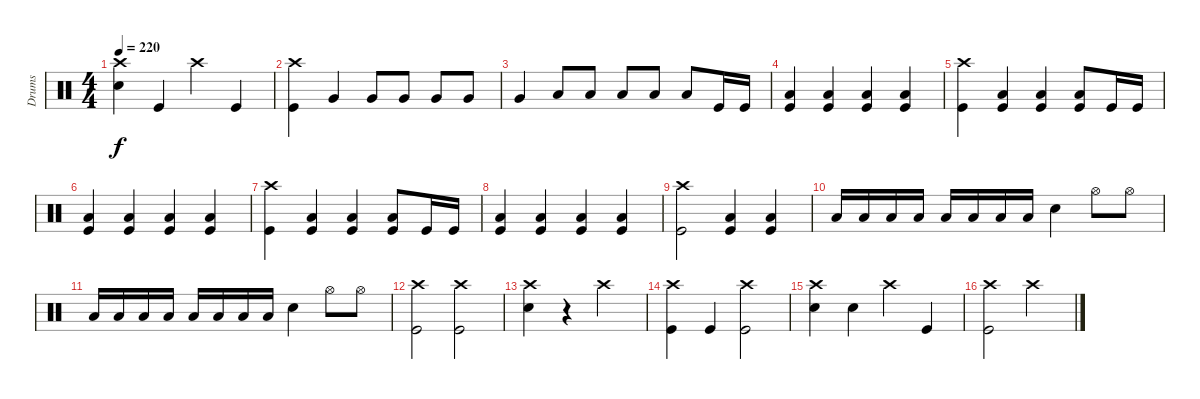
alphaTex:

\track ("Drums" "Drums") {instrument percussion}
\staff {score}
\articulation defaults
\ts (4 4)
\tempo 220
\clef neutral
\ks c
("Crash high (hit)" "Snare (hit) 2").4{dy f} "Kick (hit)".4 "Crash high (hit)".4 "Kick (hit)".4 |
("Crash high (hit)" "Kick (hit)").4 "Very Low Tom (hit)".4 "Very Low Tom (hit)".8 "Very Low Tom (hit)".8 "Very Low Tom (hit)".8 "Very Low Tom (hit)".8 |
"Very Low Tom (hit)".4 "Low Floor Tom (hit)".8 "Low Floor Tom (hit)".8 "Low Floor Tom (hit)".8 "Low Floor Tom (hit)".8 "Low Floor Tom (hit)".8 "Kick (hit)".16 "Kick (hit)".16 |
("Low Floor Tom (hit)" "Kick (hit)").4 ("Low Floor Tom (hit)" "Kick (hit)").4 ("Low Floor Tom (hit)" "Kick (hit)").4 ("Low Floor Tom (hit)" "Kick (hit)").4 |
("Crash high (hit)" "Kick (hit)").4 ("Low Floor Tom (hit)" "Kick (hit)").4 ("Low Floor Tom (hit)" "Kick (hit)").4 ("Low Floor Tom (hit)" "Kick (hit)").8 "Kick (hit)".16 "Kick (hit)".16 |
("Low Floor Tom (hit)" "Kick (hit)").4 ("Low Floor Tom (hit)" "Kick (hit)").4 ("Low Floor Tom (hit)" "Kick (hit)").4 ("Low Floor Tom (hit)" "Kick (hit)").4 |
("Crash high (hit)" "Kick (hit)").4 ("Low Floor Tom (hit)" "Kick (hit)").4 ("Low Floor Tom (hit)" "Kick (hit)").4 ("Low Floor Tom (hit)" "Kick (hit)").8 "Kick (hit)".16 "Kick (hit)".16 |
("Low Floor Tom (hit)" "Kick (hit)").4 ("Low Floor Tom (hit)" "Kick (hit)").4 ("Low Floor Tom (hit)" "Kick (hit)").4 ("Low Floor Tom (hit)" "Kick (hit)").4 |
("Crash high (hit)" "Kick (hit)").2 ("Low Floor Tom (hit)" "Kick (hit)").4 ("Low Floor Tom (hit)" "Kick (hit)").4 |
"Low Floor Tom (hit)".16 "Low Floor Tom (hit)".16 "Low Floor Tom (hit)".16 "Low Floor Tom (hit)".16 "Low Floor Tom (hit)".16 "Low Floor Tom (hit)".16 "Low Floor Tom (hit)".16 "Low Floor Tom (hit)".16 "Snare (hit) 2".4 "Hi-Hat (open)".8 "Hi-Hat (open)".8 |
"Low Floor Tom (hit)".16 "Low Floor Tom (hit)".16 "Low Floor Tom (hit)".16 "Low Floor Tom (hit)".16 "Low Floor Tom (hit)".16 "Low Floor Tom (hit)".16 "Low Floor Tom (hit)".16 "Low Floor Tom (hit)".16 "Snare (hit) 2".4 "Hi-Hat (open)".8 "Hi-Hat (open)".8 |
("Crash high (hit)" "Kick (hit)").2 ("Crash high (hit)" "Kick (hit)").2 |
("Crash high (hit)" "Snare (hit) 2").4 r.4 "Crash high (hit)".2 |
("Crash high (hit)" "Kick (hit)").4 "Kick (hit)".4 ("Crash high (hit)" "Kick (hit)").2 |
("Crash high (hit)" "Snare (hit) 2").4 "Snare (hit) 2".4 "Crash high (hit)".4 "Kick (hit)".4 |
("Crash high (hit)" "Kick (hit)").2 "Crash high (hit)".2
